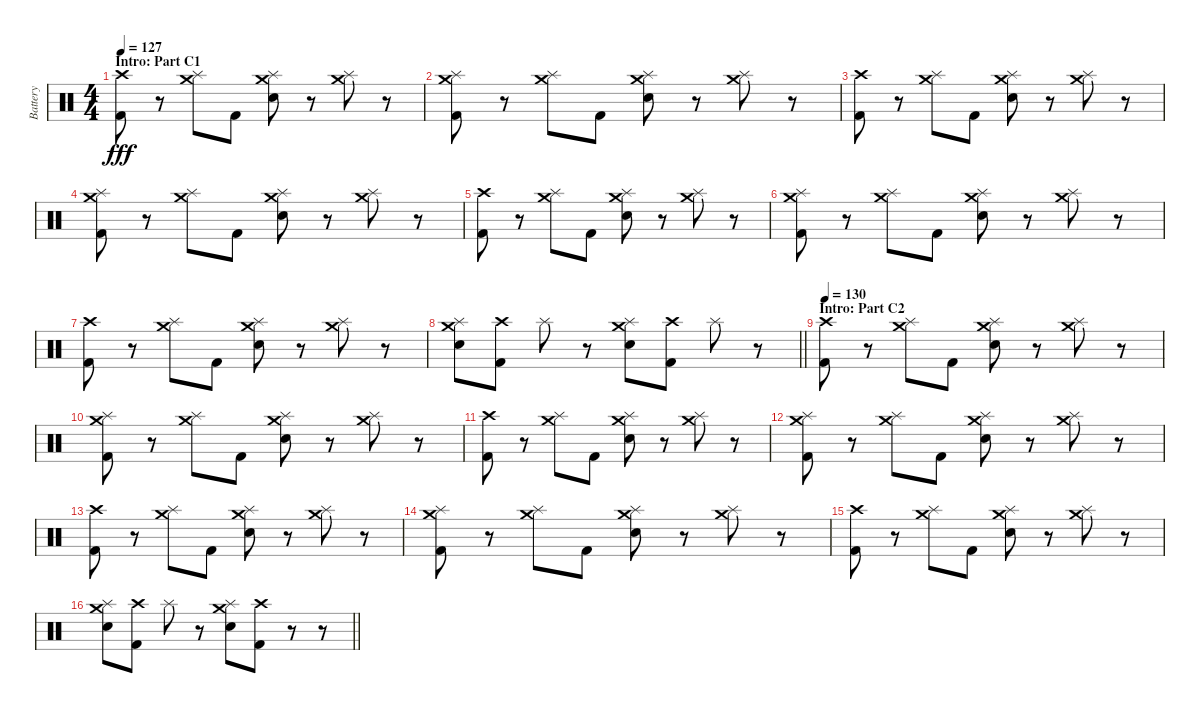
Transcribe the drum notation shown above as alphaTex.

\track ("Battery" "Battery") {instrument percussion}
\staff {score}
\articulation defaults
\ts (4 4)
\section ("" "Intro: Part C1")
\tempo 127
\clef neutral
\ks c
("Crash high (hit)" "Kick (hit) 2").8{dy fff} r.8 ("Crash medium (hit)" "Splash (hit)").8 "Kick (hit) 2".8 ("Crash medium (hit)" "Splash (hit)" "Electric Snare (hit)").8 r.8 ("Crash medium (hit)" "Splash (hit)").8 r.8 |
("Crash medium (hit)" "Splash (hit)" "Kick (hit) 2").8 r.8 ("Crash medium (hit)" "Splash (hit)").8 "Kick (hit) 2".8 ("Crash medium (hit)" "Splash (hit)" "Electric Snare (hit)").8 r.8 ("Crash medium (hit)" "Splash (hit)").8 r.8 |
("Crash high (hit)" "Kick (hit) 2").8 r.8 ("Crash medium (hit)" "Splash (hit)").8 "Kick (hit) 2".8 ("Crash medium (hit)" "Splash (hit)" "Electric Snare (hit)").8 r.8 ("Crash medium (hit)" "Splash (hit)").8 r.8 |
("Crash medium (hit)" "Splash (hit)" "Kick (hit) 2").8 r.8 ("Crash medium (hit)" "Splash (hit)").8 "Kick (hit) 2".8 ("Crash medium (hit)" "Splash (hit)" "Electric Snare (hit)").8 r.8 ("Crash medium (hit)" "Splash (hit)").8 r.8 |
("Crash high (hit)" "Kick (hit) 2").8 r.8 ("Crash medium (hit)" "Splash (hit)").8 "Kick (hit) 2".8 ("Crash medium (hit)" "Splash (hit)" "Electric Snare (hit)").8 r.8 ("Crash medium (hit)" "Splash (hit)").8 r.8 |
("Crash medium (hit)" "Splash (hit)" "Kick (hit) 2").8 r.8 ("Crash medium (hit)" "Splash (hit)").8 "Kick (hit) 2".8 ("Crash medium (hit)" "Splash (hit)" "Electric Snare (hit)").8 r.8 ("Crash medium (hit)" "Splash (hit)").8 r.8 |
("Crash high (hit)" "Kick (hit) 2").8 r.8 ("Crash medium (hit)" "Splash (hit)").8 "Kick (hit) 2".8 ("Crash medium (hit)" "Splash (hit)" "Electric Snare (hit)").8 r.8 ("Crash medium (hit)" "Splash (hit)").8 r.8 |
\barLineRight lightlight
("Crash medium (hit)" "Splash (hit)" "Electric Snare (hit)").8 ("Crash high (hit)" "Kick (hit) 2").8 "Splash (hit)".8 r.8 ("Crash medium (hit)" "Splash (hit)" "Electric Snare (hit)").8 ("Crash high (hit)" "Kick (hit) 2").8 "Splash (hit)".8 r.8 |
\section ("" "Intro: Part C2")
\tempo 130
("Crash high (hit)" "Kick (hit) 2").8 r.8 ("Crash medium (hit)" "Splash (hit)").8 "Kick (hit) 2".8 ("Crash medium (hit)" "Splash (hit)" "Electric Snare (hit)").8 r.8 ("Crash medium (hit)" "Splash (hit)").8 r.8 |
("Crash medium (hit)" "Splash (hit)" "Kick (hit) 2").8 r.8 ("Crash medium (hit)" "Splash (hit)").8 "Kick (hit) 2".8 ("Crash medium (hit)" "Splash (hit)" "Electric Snare (hit)").8 r.8 ("Crash medium (hit)" "Splash (hit)").8 r.8 |
("Crash high (hit)" "Kick (hit) 2").8 r.8 ("Crash medium (hit)" "Splash (hit)").8 "Kick (hit) 2".8 ("Crash medium (hit)" "Splash (hit)" "Electric Snare (hit)").8 r.8 ("Crash medium (hit)" "Splash (hit)").8 r.8 |
("Crash medium (hit)" "Splash (hit)" "Kick (hit) 2").8 r.8 ("Crash medium (hit)" "Splash (hit)").8 "Kick (hit) 2".8 ("Crash medium (hit)" "Splash (hit)" "Electric Snare (hit)").8 r.8 ("Crash medium (hit)" "Splash (hit)").8 r.8 |
("Crash high (hit)" "Kick (hit) 2").8 r.8 ("Crash medium (hit)" "Splash (hit)").8 "Kick (hit) 2".8 ("Crash medium (hit)" "Splash (hit)" "Electric Snare (hit)").8 r.8 ("Crash medium (hit)" "Splash (hit)").8 r.8 |
("Crash medium (hit)" "Splash (hit)" "Kick (hit) 2").8 r.8 ("Crash medium (hit)" "Splash (hit)").8 "Kick (hit) 2".8 ("Crash medium (hit)" "Splash (hit)" "Electric Snare (hit)").8 r.8 ("Crash medium (hit)" "Splash (hit)").8 r.8 |
("Crash high (hit)" "Kick (hit) 2").8 r.8 ("Crash medium (hit)" "Splash (hit)").8 "Kick (hit) 2".8 ("Crash medium (hit)" "Splash (hit)" "Electric Snare (hit)").8 r.8 ("Crash medium (hit)" "Splash (hit)").8 r.8 |
\barLineRight lightlight
("Crash medium (hit)" "Splash (hit)" "Electric Snare (hit)").8 ("Crash high (hit)" "Kick (hit) 2").8 "Splash (hit)".8 r.8 ("Crash medium (hit)" "Splash (hit)" "Electric Snare (hit)").8 ("Crash high (hit)" "Kick (hit) 2").8 r.8 r.8
